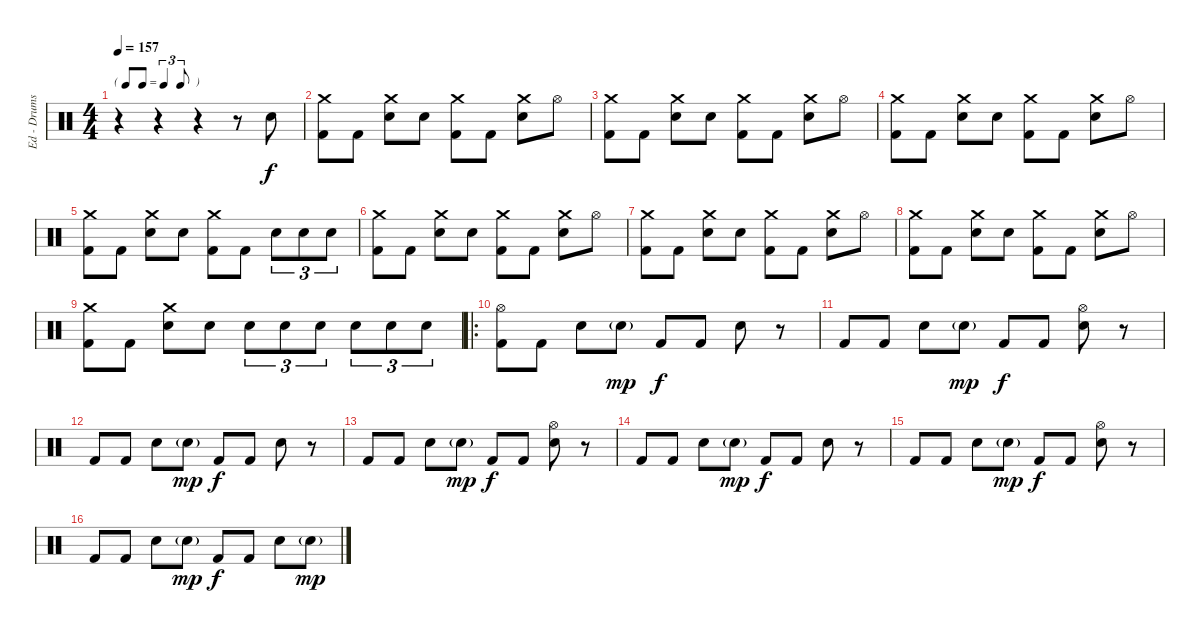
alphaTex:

\track ("Ed - Drums" "Ed - Drums") {instrument percussion}
\staff {score}
\articulation defaults
\ts (4 4)
\tf triplet8th
\tempo 157
\clef neutral
\ks c
r.4{dy f} r.4 r.4 r.8 "Electric Snare (hit)".8 |
("Crash medium (hit)" "Kick (hit) 2").8 "Kick (hit) 2".8 ("Crash medium (hit)" "Electric Snare (hit)").8 "Electric Snare (hit)".8 ("Crash medium (hit)" "Kick (hit) 2").8 "Kick (hit) 2".8 ("Crash medium (hit)" "Electric Snare (hit)").8 "Hi-Hat (open)".8 |
("Crash medium (hit)" "Kick (hit) 2").8 "Kick (hit) 2".8 ("Crash medium (hit)" "Electric Snare (hit)").8 "Electric Snare (hit)".8 ("Crash medium (hit)" "Kick (hit) 2").8 "Kick (hit) 2".8 ("Crash medium (hit)" "Electric Snare (hit)").8 "Hi-Hat (open)".8 |
("Crash medium (hit)" "Kick (hit) 2").8 "Kick (hit) 2".8 ("Crash medium (hit)" "Electric Snare (hit)").8 "Electric Snare (hit)".8 ("Crash medium (hit)" "Kick (hit) 2").8 "Kick (hit) 2".8 ("Crash medium (hit)" "Electric Snare (hit)").8 "Hi-Hat (open)".8 |
("Crash medium (hit)" "Kick (hit) 2").8 "Kick (hit) 2".8 ("Crash medium (hit)" "Electric Snare (hit)").8 "Electric Snare (hit)".8 ("Crash medium (hit)" "Kick (hit) 2").8 "Kick (hit) 2".8 "Electric Snare (hit)".8{tu (3 2)} "Electric Snare (hit)".8{tu (3 2)} "Electric Snare (hit)".8{tu (3 2)} |
("Crash medium (hit)" "Kick (hit) 2").8 "Kick (hit) 2".8 ("Crash medium (hit)" "Electric Snare (hit)").8 "Electric Snare (hit)".8 ("Crash medium (hit)" "Kick (hit) 2").8 "Kick (hit) 2".8 ("Crash medium (hit)" "Electric Snare (hit)").8 "Hi-Hat (open)".8 |
("Crash medium (hit)" "Kick (hit) 2").8 "Kick (hit) 2".8 ("Crash medium (hit)" "Electric Snare (hit)").8 "Electric Snare (hit)".8 ("Crash medium (hit)" "Kick (hit) 2").8 "Kick (hit) 2".8 ("Crash medium (hit)" "Electric Snare (hit)").8 "Hi-Hat (open)".8 |
("Crash medium (hit)" "Kick (hit) 2").8 "Kick (hit) 2".8 ("Crash medium (hit)" "Electric Snare (hit)").8 "Electric Snare (hit)".8 ("Crash medium (hit)" "Kick (hit) 2").8 "Kick (hit) 2".8 ("Crash medium (hit)" "Electric Snare (hit)").8 "Hi-Hat (open)".8 |
("Crash medium (hit)" "Kick (hit) 2").8 "Kick (hit) 2".8 ("Crash medium (hit)" "Electric Snare (hit)").8 "Electric Snare (hit)".8 "Electric Snare (hit)".8{tu (3 2)} "Electric Snare (hit)".8{tu (3 2)} "Electric Snare (hit)".8{tu (3 2)} "Electric Snare (hit)".8{tu (3 2)} "Electric Snare (hit)".8{tu (3 2)} "Electric Snare (hit)".8{tu (3 2)} |
\ro
("Hi-Hat (open)" "Kick (hit) 2").8 "Kick (hit) 2".8 "Electric Snare (hit)".8 "Electric Snare (hit)"{g}.8{dy mp} "Kick (hit) 2".8{dy f} "Kick (hit) 2".8 "Electric Snare (hit)".8 r.8 |
"Kick (hit) 2".8 "Kick (hit) 2".8 "Electric Snare (hit)".8 "Electric Snare (hit)"{g}.8{dy mp} "Kick (hit) 2".8{dy f} "Kick (hit) 2".8 ("Hi-Hat (open)" "Electric Snare (hit)").8 r.8 |
"Kick (hit) 2".8 "Kick (hit) 2".8 "Electric Snare (hit)".8 "Electric Snare (hit)"{g}.8{dy mp} "Kick (hit) 2".8{dy f} "Kick (hit) 2".8 "Electric Snare (hit)".8 r.8 |
"Kick (hit) 2".8 "Kick (hit) 2".8 "Electric Snare (hit)".8 "Electric Snare (hit)"{g}.8{dy mp} "Kick (hit) 2".8{dy f} "Kick (hit) 2".8 ("Hi-Hat (open)" "Electric Snare (hit)").8 r.8 |
"Kick (hit) 2".8 "Kick (hit) 2".8 "Electric Snare (hit)".8 "Electric Snare (hit)"{g}.8{dy mp} "Kick (hit) 2".8{dy f} "Kick (hit) 2".8 "Electric Snare (hit)".8 r.8 |
"Kick (hit) 2".8 "Kick (hit) 2".8 "Electric Snare (hit)".8 "Electric Snare (hit)"{g}.8{dy mp} "Kick (hit) 2".8{dy f} "Kick (hit) 2".8 ("Hi-Hat (open)" "Electric Snare (hit)").8 r.8 |
"Kick (hit) 2".8 "Kick (hit) 2".8 "Electric Snare (hit)".8 "Electric Snare (hit)"{g}.8{dy mp} "Kick (hit) 2".8{dy f} "Kick (hit) 2".8 "Electric Snare (hit)".8 "Electric Snare (hit)"{g}.8{dy mp}
